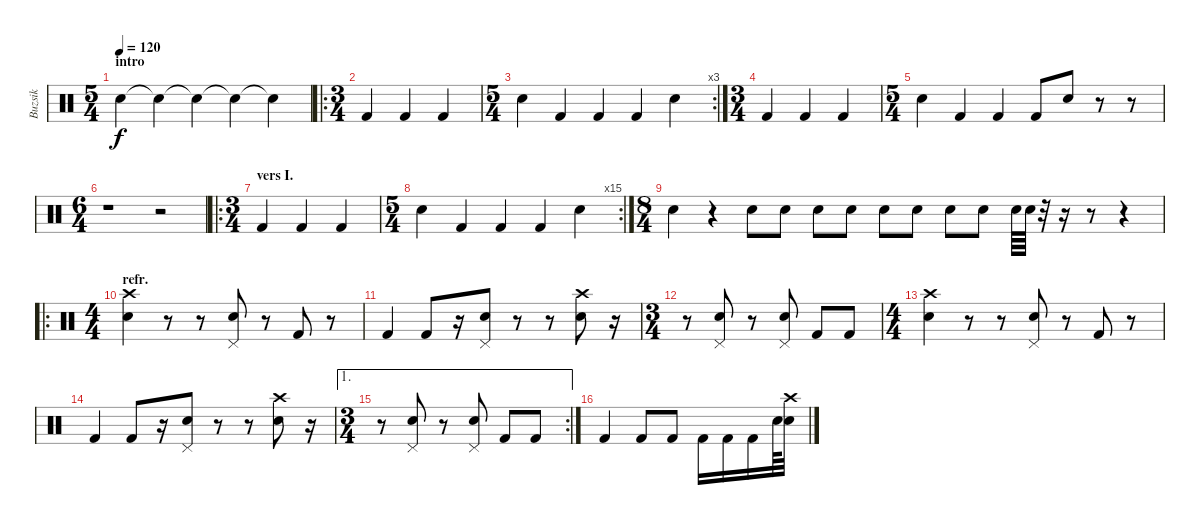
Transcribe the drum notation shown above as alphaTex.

\track ("Buzsik" "Buzsik") {instrument percussion}
\staff {score}
\articulation defaults
\ts (5 4)
\section ("" "intro")
\tempo 120
\clef neutral
\ks c "Snare (hit) 2".4{dy f} "Snare (hit)"{t}.4 "Snare (hit)"{t}.4 "Snare (hit)"{t}.4 "Snare (hit)"{t}.4
|
\ro
\ts (3 4)
"Kick (hit) 2".4 "Kick (hit) 2".4 "Kick (hit) 2".4 |
\rc 3
\ts (5 4)
"Snare (hit) 2".4 "Kick (hit) 2".4 "Kick (hit) 2".4 "Kick (hit) 2".4 "Snare (hit) 2".4 |
\ts (3 4)
"Kick (hit) 2".4 "Kick (hit) 2".4 "Kick (hit) 2".4 |
\ts (5 4)
"Snare (hit) 2".4 "Kick (hit) 2".4 "Kick (hit) 2".4 "Kick (hit) 2".8 "Snare (hit) 2".8 r.8 r.8 |
\ts (6 4)
r.1 r.2 |
\ro
\ts (3 4)
\section ("" "vers I.")
"Kick (hit) 2".4 "Kick (hit) 2".4 "Kick (hit) 2".4 |
\rc 15
\ts (5 4)
"Snare (hit) 2".4 "Kick (hit) 2".4 "Kick (hit) 2".4 "Kick (hit) 2".4 "Snare (hit) 2".4 |
\ts (8 4)
"Snare (hit) 2".4 r.4 "Snare (hit) 2".8 "Snare (hit) 2".8 "Snare (hit) 2".8 "Snare (hit) 2".8 "Snare (hit) 2".8 "Snare (hit) 2".8 "Snare (hit) 2".8 "Snare (hit) 2".8 "Snare (hit) 2".64 "Snare (hit) 2".64 r.32 r.16 r.8 r.4 |
\ro
\ts (4 4)
\section ("" "refr.")
("Snare (hit) 2" "Crash high (hit)").4 r.8 r.8 ("Snare (hit) 2" "Pedal Hi-Hat (hit)").8 r.8 "Kick (hit) 2".8 r.8 |
"Kick (hit) 2".4 "Kick (hit) 2".8 r.16 ("Snare (hit) 2" "Pedal Hi-Hat (hit)").8 r.8 r.8 ("Crash high (hit)" "Snare (hit) 2").8 r.16 |
\ts (3 4)
r.8 ("Snare (hit) 2" "Pedal Hi-Hat (hit)").8 r.8 ("Snare (hit) 2" "Pedal Hi-Hat (hit)").8 "Kick (hit) 2".8 "Kick (hit) 2".8 |
\ts (4 4)
("Snare (hit) 2" "Crash high (hit)").4 r.8 r.8 ("Snare (hit) 2" "Pedal Hi-Hat (hit)").8 r.8 "Kick (hit) 2".8 r.8 |
"Kick (hit) 2".4 "Kick (hit) 2".8 r.16 ("Snare (hit) 2" "Pedal Hi-Hat (hit)").8 r.8 r.8 ("Crash high (hit)" "Snare (hit) 2").8 r.16 |
\ae 1
\rc 2
\ts (3 4)
r.8 ("Snare (hit) 2" "Pedal Hi-Hat (hit)").8 r.8 ("Snare (hit) 2" "Pedal Hi-Hat (hit)").8 "Kick (hit) 2".8 "Kick (hit) 2".8 |
"Kick (hit) 2".4 "Kick (hit) 2".8 "Kick (hit) 2".8 "Kick (hit) 2".16 "Kick (hit) 2".16 "Kick (hit) 2".16 "Snare (hit) 2".64 ("Crash high (hit)" "Snare (hit) 2").32
